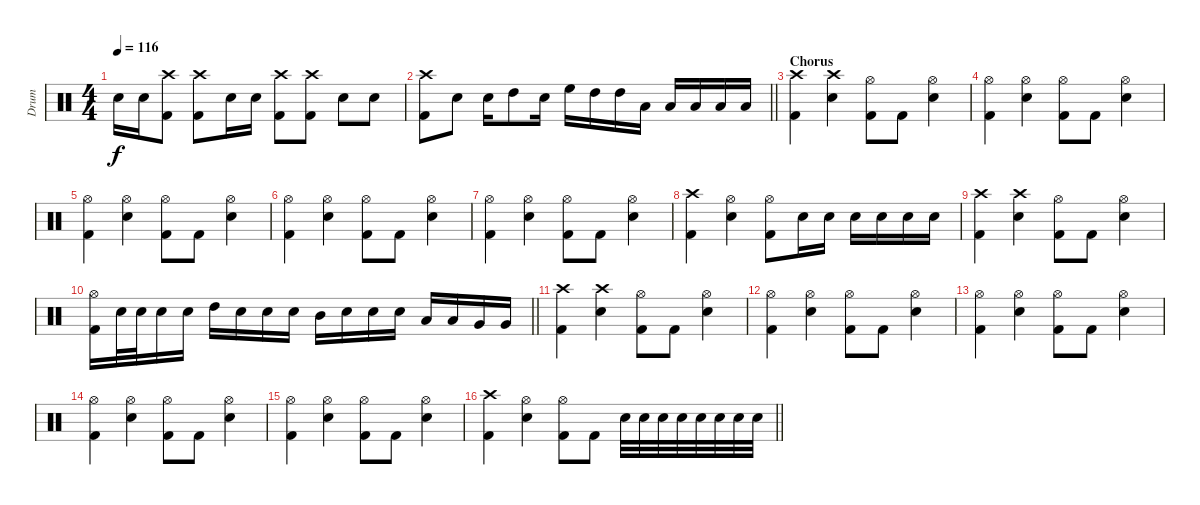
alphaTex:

\track ("Drum" "Drum") {instrument percussion}
\staff {score}
\articulation defaults
\ts (4 4)
\tempo 116
\clef neutral
\ks c "Electric Snare (hit)".16{dy f} "Electric Snare (hit)".16
("Crash high (hit)" "Kick (hit) 2").8 ("Crash high (hit)" "Kick (hit) 2").8 "Electric Snare (hit)".16 "Electric Snare (hit)".16 ("Crash high (hit)" "Kick (hit) 2").8 ("Crash high (hit)" "Kick (hit) 2").8 "Electric Snare (hit)".8 "Electric Snare (hit)".8 |
\barLineRight lightlight
("Crash high (hit)" "Kick (hit) 2").8 "Electric Snare (hit)".8 "Electric Snare (hit)".16 "High Tom (hit)".8 "Electric Snare (hit)".16 "High Floor Tom (hit)".16 "High Tom (hit)".16 "High Tom (hit)".16 "Low Tom (hit)".16 "Low Tom (hit)".16 "Low Floor Tom (hit)".16 "Low Floor Tom (hit)".16 "Low Floor Tom (hit)".16 |
\section ("" "Chorus")
("Crash high (hit)" "Kick (hit) 2").4 ("Crash high (hit)" "Electric Snare (hit)").4 ("Hi-Hat (open)" "Kick (hit) 2").8 "Kick (hit) 2".8 ("Hi-Hat (open)" "Electric Snare (hit)").4 |
("Hi-Hat (open)" "Kick (hit) 2").4 ("Hi-Hat (open)" "Electric Snare (hit)").4 ("Hi-Hat (open)" "Kick (hit) 2").8 "Kick (hit) 2".8 ("Hi-Hat (open)" "Electric Snare (hit)").4 |
("Hi-Hat (open)" "Kick (hit) 2").4 ("Hi-Hat (open)" "Electric Snare (hit)").4 ("Hi-Hat (open)" "Kick (hit) 2").8 "Kick (hit) 2".8 ("Hi-Hat (open)" "Electric Snare (hit)").4 |
("Hi-Hat (open)" "Kick (hit) 2").4 ("Hi-Hat (open)" "Electric Snare (hit)").4 ("Hi-Hat (open)" "Kick (hit) 2").8 "Kick (hit) 2".8 ("Hi-Hat (open)" "Electric Snare (hit)").4 |
("Hi-Hat (open)" "Kick (hit) 2").4 ("Hi-Hat (open)" "Electric Snare (hit)").4 ("Hi-Hat (open)" "Kick (hit) 2").8 "Kick (hit) 2".8 ("Hi-Hat (open)" "Electric Snare (hit)").4 |
("Crash high (hit)" "Kick (hit) 2").4 ("Hi-Hat (open)" "Electric Snare (hit)").4 ("Hi-Hat (open)" "Kick (hit) 2").8 "Electric Snare (hit)".16 "Electric Snare (hit)".16 "Electric Snare (hit)".16 "Electric Snare (hit)".16 "Electric Snare (hit)".16 "Electric Snare (hit)".16 |
("Crash high (hit)" "Kick (hit) 2").4 ("Crash high (hit)" "Electric Snare (hit)").4 ("Hi-Hat (open)" "Kick (hit) 2").8 "Kick (hit) 2".8 ("Hi-Hat (open)" "Electric Snare (hit)").4 |
\barLineRight lightlight
("Hi-Hat (open)" "Kick (hit) 2").16 "Electric Snare (hit)".32 "Electric Snare (hit)".32 "Electric Snare (hit)".16 "Electric Snare (hit)".16 "High Tom (hit)".16 "Electric Snare (hit)".16 "Electric Snare (hit)".16 "Electric Snare (hit)".16 "Mid Tom (hit)".16 "Electric Snare (hit)".16 "Electric Snare (hit)".16 "Electric Snare (hit)".16 "Low Tom (hit)".16 "Low Tom (hit)".16 "Very Low Tom (hit)".16 "Very Low Tom (hit)".16 |
("Crash high (hit)" "Kick (hit) 2").4 ("Crash high (hit)" "Electric Snare (hit)").4 ("Hi-Hat (open)" "Kick (hit) 2").8 "Kick (hit) 2".8 ("Hi-Hat (open)" "Electric Snare (hit)").4 |
("Hi-Hat (open)" "Kick (hit) 2").4 ("Hi-Hat (open)" "Electric Snare (hit)").4 ("Hi-Hat (open)" "Kick (hit) 2").8 "Kick (hit) 2".8 ("Hi-Hat (open)" "Electric Snare (hit)").4 |
("Hi-Hat (open)" "Kick (hit) 2").4 ("Hi-Hat (open)" "Electric Snare (hit)").4 ("Hi-Hat (open)" "Kick (hit) 2").8 "Kick (hit) 2".8 ("Hi-Hat (open)" "Electric Snare (hit)").4 |
("Hi-Hat (open)" "Kick (hit) 2").4 ("Hi-Hat (open)" "Electric Snare (hit)").4 ("Hi-Hat (open)" "Kick (hit) 2").8 "Kick (hit) 2".8 ("Hi-Hat (open)" "Electric Snare (hit)").4 |
("Hi-Hat (open)" "Kick (hit) 2").4 ("Hi-Hat (open)" "Electric Snare (hit)").4 ("Hi-Hat (open)" "Kick (hit) 2").8 "Kick (hit) 2".8 ("Hi-Hat (open)" "Electric Snare (hit)").4 |
\barLineRight lightlight
("Crash high (hit)" "Kick (hit) 2").4 ("Hi-Hat (open)" "Electric Snare (hit)").4 ("Hi-Hat (open)" "Kick (hit) 2").8 "Kick (hit) 2".8 "Electric Snare (hit)".32 "Electric Snare (hit)".32 "Electric Snare (hit)".32 "Electric Snare (hit)".32 "Electric Snare (hit)".32 "Electric Snare (hit)".32 "Electric Snare (hit)".32 "Electric Snare (hit)".32
